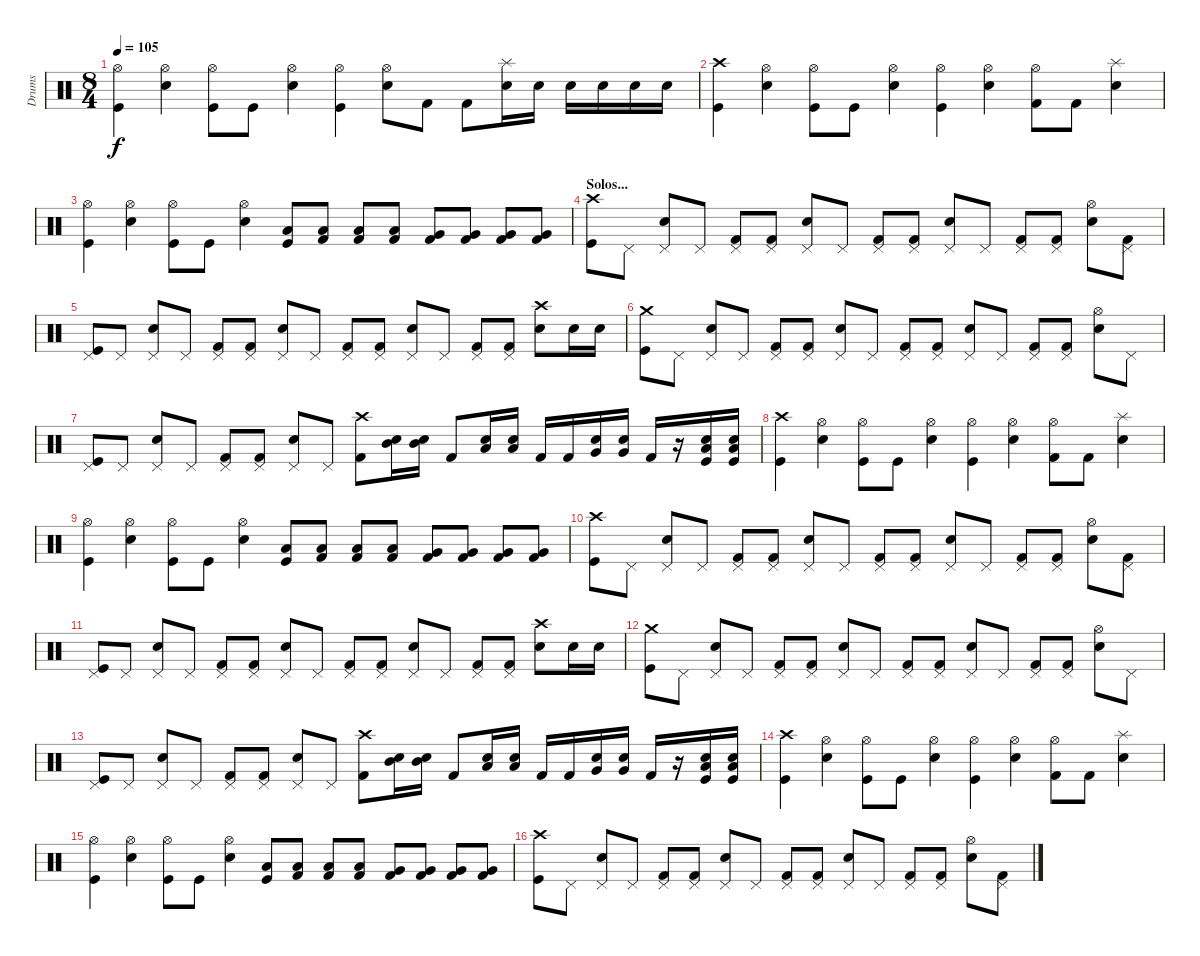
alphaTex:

\track ("Drums" "Drums") {instrument percussion}
\staff {score}
\articulation defaults
\ts (8 4)
\tempo 105
\clef neutral
\ks c
("Hi-Hat (open)" "Kick (hit)").4{dy f} ("Hi-Hat (open)" "Snare (hit) 2").4 ("Hi-Hat (open)" "Kick (hit)").8 "Kick (hit)".8 ("Hi-Hat (open)" "Snare (hit) 2").4 ("Hi-Hat (open)" "Kick (hit)").4 ("Hi-Hat (open)" "Snare (hit) 2").8 "Kick (hit) 2".8 "Kick (hit) 2".8 ("Splash (hit)" "Snare (hit) 2").16 "Snare (hit) 2".16 "Snare (hit) 2".16 "Snare (hit) 2".16 "Snare (hit) 2".16 "Snare (hit) 2".16 |
("Crash high (hit)" "Kick (hit)").4 ("Hi-Hat (open)" "Snare (hit) 2").4 ("Hi-Hat (open)" "Kick (hit)").8 "Kick (hit)".8 ("Hi-Hat (open)" "Snare (hit) 2").4 ("Hi-Hat (open)" "Kick (hit)").4 ("Hi-Hat (open)" "Snare (hit) 2").4 ("Hi-Hat (open)" "Kick (hit) 2").8 "Kick (hit) 2".8 ("Splash (hit)" "Snare (hit) 2").4 |
("Hi-Hat (open)" "Kick (hit)").4 ("Hi-Hat (open)" "Snare (hit) 2").4 ("Hi-Hat (open)" "Kick (hit)").8 "Kick (hit)".8 ("Hi-Hat (open)" "Snare (hit) 2").4 ("Low Tom (hit)" "Kick (hit)").8 ("Low Tom (hit)" "Kick (hit) 2").8 ("Low Tom (hit)" "Kick (hit) 2").8 ("Low Tom (hit)" "Kick (hit) 2").8 ("Very Low Tom (hit)" "Kick (hit) 2").8 ("Very Low Tom (hit)" "Kick (hit) 2").8 ("Very Low Tom (hit)" "Kick (hit) 2").8 ("Very Low Tom (hit)" "Kick (hit) 2").8 |
\section ("" "Solos...")
("Crash high (hit)" "Kick (hit)").8 "Pedal Hi-Hat (hit)".8 ("Pedal Hi-Hat (hit)" "Snare (hit) 2").8 "Pedal Hi-Hat (hit)".8 ("Pedal Hi-Hat (hit)" "Kick (hit) 2").8 ("Pedal Hi-Hat (hit)" "Kick (hit) 2").8 ("Pedal Hi-Hat (hit)" "Snare (hit) 2").8 "Pedal Hi-Hat (hit)".8 ("Pedal Hi-Hat (hit)" "Kick (hit) 2").8 ("Pedal Hi-Hat (hit)" "Kick (hit) 2").8 ("Pedal Hi-Hat (hit)" "Snare (hit) 2").8 "Pedal Hi-Hat (hit)".8 ("Pedal Hi-Hat (hit)" "Kick (hit) 2").8 ("Pedal Hi-Hat (hit)" "Kick (hit) 2").8 ("Hi-Hat (open)" "Snare (hit) 2").8 ("Pedal Hi-Hat (hit)" "Kick (hit) 2").8 |
("Pedal Hi-Hat (hit)" "Kick (hit)").8 "Pedal Hi-Hat (hit)".8 ("Pedal Hi-Hat (hit)" "Snare (hit) 2").8 "Pedal Hi-Hat (hit)".8 ("Pedal Hi-Hat (hit)" "Kick (hit) 2").8 ("Pedal Hi-Hat (hit)" "Kick (hit) 2").8 ("Pedal Hi-Hat (hit)" "Snare (hit) 2").8 "Pedal Hi-Hat (hit)".8 ("Pedal Hi-Hat (hit)" "Kick (hit) 2").8 ("Pedal Hi-Hat (hit)" "Kick (hit) 2").8 ("Pedal Hi-Hat (hit)" "Snare (hit) 2").8 "Pedal Hi-Hat (hit)".8 ("Pedal Hi-Hat (hit)" "Kick (hit) 2").8 ("Pedal Hi-Hat (hit)" "Kick (hit) 2").8 ("Crash high (hit)" "Snare (hit) 2").8 "Snare (hit) 2".16 "Snare (hit) 2".16 |
("Crash medium (hit)" "Kick (hit)").8 "Pedal Hi-Hat (hit)".8 ("Pedal Hi-Hat (hit)" "Snare (hit) 2").8 "Pedal Hi-Hat (hit)".8 ("Pedal Hi-Hat (hit)" "Kick (hit) 2").8 ("Pedal Hi-Hat (hit)" "Kick (hit) 2").8 ("Pedal Hi-Hat (hit)" "Snare (hit) 2").8 "Pedal Hi-Hat (hit)".8 ("Pedal Hi-Hat (hit)" "Kick (hit) 2").8 ("Pedal Hi-Hat (hit)" "Kick (hit) 2").8 ("Pedal Hi-Hat (hit)" "Snare (hit) 2").8 "Pedal Hi-Hat (hit)".8 ("Pedal Hi-Hat (hit)" "Kick (hit) 2").8 ("Pedal Hi-Hat (hit)" "Kick (hit) 2").8 ("Hi-Hat (open)" "Snare (hit) 2").8 "Pedal Hi-Hat (hit)".8 |
("Pedal Hi-Hat (hit)" "Kick (hit)").8 "Pedal Hi-Hat (hit)".8 ("Pedal Hi-Hat (hit)" "Snare (hit) 2").8 "Pedal Hi-Hat (hit)".8 ("Pedal Hi-Hat (hit)" "Kick (hit) 2").8 ("Pedal Hi-Hat (hit)" "Kick (hit) 2").8 ("Pedal Hi-Hat (hit)" "Snare (hit) 2").8 "Pedal Hi-Hat (hit)".8 ("Crash high (hit)" "Kick (hit) 2").8 ("Mid Tom (hit)" "Snare (hit) 2").16 ("Mid Tom (hit)" "Snare (hit) 2").16 "Kick (hit) 2".8 ("Low Tom (hit)" "Snare (hit) 2").16 ("Low Tom (hit)" "Snare (hit) 2").16 "Kick (hit) 2".16 "Kick (hit) 2".16 ("Very Low Tom (hit)" "Snare (hit) 2").16 ("Very Low Tom (hit)" "Snare (hit) 2").16 "Kick (hit) 2".16 r.16 ("Low Floor Tom (hit)" "Snare (hit) 2" "Kick (hit)").16 ("Low Floor Tom (hit)" "Snare (hit) 2" "Kick (hit)").16 |
("Crash high (hit)" "Kick (hit)").4 ("Hi-Hat (open)" "Snare (hit) 2").4 ("Hi-Hat (open)" "Kick (hit)").8 "Kick (hit)".8 ("Hi-Hat (open)" "Snare (hit) 2").4 ("Hi-Hat (open)" "Kick (hit)").4 ("Hi-Hat (open)" "Snare (hit) 2").4 ("Hi-Hat (open)" "Kick (hit) 2").8 "Kick (hit) 2".8 ("Splash (hit)" "Snare (hit) 2").4 |
("Hi-Hat (open)" "Kick (hit)").4 ("Hi-Hat (open)" "Snare (hit) 2").4 ("Hi-Hat (open)" "Kick (hit)").8 "Kick (hit)".8 ("Hi-Hat (open)" "Snare (hit) 2").4 ("Low Tom (hit)" "Kick (hit)").8 ("Low Tom (hit)" "Kick (hit) 2").8 ("Low Tom (hit)" "Kick (hit) 2").8 ("Low Tom (hit)" "Kick (hit) 2").8 ("Very Low Tom (hit)" "Kick (hit) 2").8 ("Very Low Tom (hit)" "Kick (hit) 2").8 ("Very Low Tom (hit)" "Kick (hit) 2").8 ("Very Low Tom (hit)" "Kick (hit) 2").8 |
("Crash high (hit)" "Kick (hit)").8 "Pedal Hi-Hat (hit)".8 ("Pedal Hi-Hat (hit)" "Snare (hit) 2").8 "Pedal Hi-Hat (hit)".8 ("Pedal Hi-Hat (hit)" "Kick (hit) 2").8 ("Pedal Hi-Hat (hit)" "Kick (hit) 2").8 ("Pedal Hi-Hat (hit)" "Snare (hit) 2").8 "Pedal Hi-Hat (hit)".8 ("Pedal Hi-Hat (hit)" "Kick (hit) 2").8 ("Pedal Hi-Hat (hit)" "Kick (hit) 2").8 ("Pedal Hi-Hat (hit)" "Snare (hit) 2").8 "Pedal Hi-Hat (hit)".8 ("Pedal Hi-Hat (hit)" "Kick (hit) 2").8 ("Pedal Hi-Hat (hit)" "Kick (hit) 2").8 ("Hi-Hat (open)" "Snare (hit) 2").8 ("Pedal Hi-Hat (hit)" "Kick (hit) 2").8 |
("Pedal Hi-Hat (hit)" "Kick (hit)").8 "Pedal Hi-Hat (hit)".8 ("Pedal Hi-Hat (hit)" "Snare (hit) 2").8 "Pedal Hi-Hat (hit)".8 ("Pedal Hi-Hat (hit)" "Kick (hit) 2").8 ("Pedal Hi-Hat (hit)" "Kick (hit) 2").8 ("Pedal Hi-Hat (hit)" "Snare (hit) 2").8 "Pedal Hi-Hat (hit)".8 ("Pedal Hi-Hat (hit)" "Kick (hit) 2").8 ("Pedal Hi-Hat (hit)" "Kick (hit) 2").8 ("Pedal Hi-Hat (hit)" "Snare (hit) 2").8 "Pedal Hi-Hat (hit)".8 ("Pedal Hi-Hat (hit)" "Kick (hit) 2").8 ("Pedal Hi-Hat (hit)" "Kick (hit) 2").8 ("Crash high (hit)" "Snare (hit) 2").8 "Snare (hit) 2".16 "Snare (hit) 2".16 |
("Crash medium (hit)" "Kick (hit)").8 "Pedal Hi-Hat (hit)".8 ("Pedal Hi-Hat (hit)" "Snare (hit) 2").8 "Pedal Hi-Hat (hit)".8 ("Pedal Hi-Hat (hit)" "Kick (hit) 2").8 ("Pedal Hi-Hat (hit)" "Kick (hit) 2").8 ("Pedal Hi-Hat (hit)" "Snare (hit) 2").8 "Pedal Hi-Hat (hit)".8 ("Pedal Hi-Hat (hit)" "Kick (hit) 2").8 ("Pedal Hi-Hat (hit)" "Kick (hit) 2").8 ("Pedal Hi-Hat (hit)" "Snare (hit) 2").8 "Pedal Hi-Hat (hit)".8 ("Pedal Hi-Hat (hit)" "Kick (hit) 2").8 ("Pedal Hi-Hat (hit)" "Kick (hit) 2").8 ("Hi-Hat (open)" "Snare (hit) 2").8 "Pedal Hi-Hat (hit)".8 |
("Pedal Hi-Hat (hit)" "Kick (hit)").8 "Pedal Hi-Hat (hit)".8 ("Pedal Hi-Hat (hit)" "Snare (hit) 2").8 "Pedal Hi-Hat (hit)".8 ("Pedal Hi-Hat (hit)" "Kick (hit) 2").8 ("Pedal Hi-Hat (hit)" "Kick (hit) 2").8 ("Pedal Hi-Hat (hit)" "Snare (hit) 2").8 "Pedal Hi-Hat (hit)".8 ("Crash high (hit)" "Kick (hit) 2").8 ("Mid Tom (hit)" "Snare (hit) 2").16 ("Mid Tom (hit)" "Snare (hit) 2").16 "Kick (hit) 2".8 ("Low Tom (hit)" "Snare (hit) 2").16 ("Low Tom (hit)" "Snare (hit) 2").16 "Kick (hit) 2".16 "Kick (hit) 2".16 ("Very Low Tom (hit)" "Snare (hit) 2").16 ("Very Low Tom (hit)" "Snare (hit) 2").16 "Kick (hit) 2".16 r.16 ("Low Floor Tom (hit)" "Snare (hit) 2" "Kick (hit)").16 ("Low Floor Tom (hit)" "Snare (hit) 2" "Kick (hit)").16 |
("Crash high (hit)" "Kick (hit)").4 ("Hi-Hat (open)" "Snare (hit) 2").4 ("Hi-Hat (open)" "Kick (hit)").8 "Kick (hit)".8 ("Hi-Hat (open)" "Snare (hit) 2").4 ("Hi-Hat (open)" "Kick (hit)").4 ("Hi-Hat (open)" "Snare (hit) 2").4 ("Hi-Hat (open)" "Kick (hit) 2").8 "Kick (hit) 2".8 ("Splash (hit)" "Snare (hit) 2").4 |
("Hi-Hat (open)" "Kick (hit)").4 ("Hi-Hat (open)" "Snare (hit) 2").4 ("Hi-Hat (open)" "Kick (hit)").8 "Kick (hit)".8 ("Hi-Hat (open)" "Snare (hit) 2").4 ("Low Tom (hit)" "Kick (hit)").8 ("Low Tom (hit)" "Kick (hit) 2").8 ("Low Tom (hit)" "Kick (hit) 2").8 ("Low Tom (hit)" "Kick (hit) 2").8 ("Very Low Tom (hit)" "Kick (hit) 2").8 ("Very Low Tom (hit)" "Kick (hit) 2").8 ("Very Low Tom (hit)" "Kick (hit) 2").8 ("Very Low Tom (hit)" "Kick (hit) 2").8 |
("Crash high (hit)" "Kick (hit)").8 "Pedal Hi-Hat (hit)".8 ("Pedal Hi-Hat (hit)" "Snare (hit) 2").8 "Pedal Hi-Hat (hit)".8 ("Pedal Hi-Hat (hit)" "Kick (hit) 2").8 ("Pedal Hi-Hat (hit)" "Kick (hit) 2").8 ("Pedal Hi-Hat (hit)" "Snare (hit) 2").8 "Pedal Hi-Hat (hit)".8 ("Pedal Hi-Hat (hit)" "Kick (hit) 2").8 ("Pedal Hi-Hat (hit)" "Kick (hit) 2").8 ("Pedal Hi-Hat (hit)" "Snare (hit) 2").8 "Pedal Hi-Hat (hit)".8 ("Pedal Hi-Hat (hit)" "Kick (hit) 2").8 ("Pedal Hi-Hat (hit)" "Kick (hit) 2").8 ("Hi-Hat (open)" "Snare (hit) 2").8 ("Pedal Hi-Hat (hit)" "Kick (hit) 2").8
